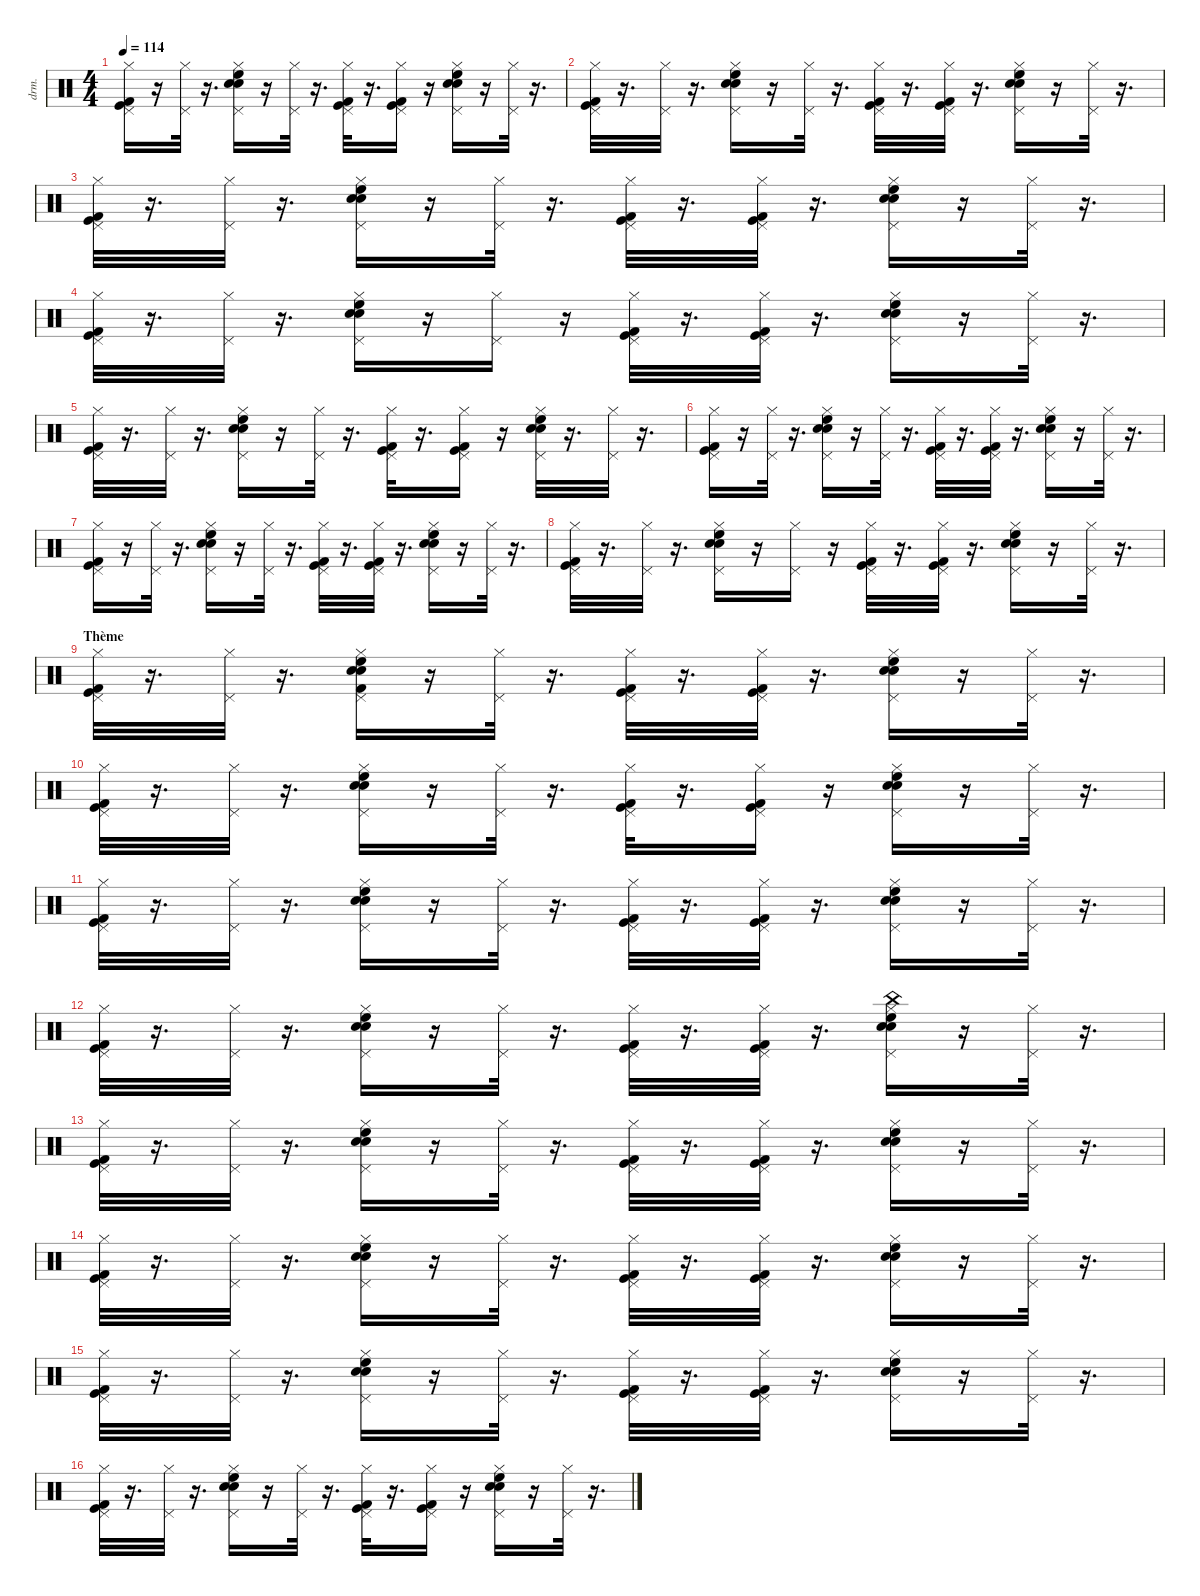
\defaultSystemsLayout 4
\hideDynamics
\bracketExtendMode nobrackets
\otherSystemsTrackNameOrientation horizontal
\track ("Drums" "drm.") {instrument percussion}
\staff {score}
\articulation defaults
\ts (4 4)
\tempo 114
\clef neutral
\ks c
("Kick (hit)" "Kick (hit) 2" "Pedal Hi-Hat (hit)" "Hi-Hat (closed)").16{dy fff} r.16 ("Pedal Hi-Hat (hit)" "Hi-Hat (closed)").32{dy ff} r.16{d} ("Snare (hit) 2" "Pedal Hi-Hat (hit)" "Hi-Hat (closed)" "High Floor Tom (hit)" "Snare (hit) 2").16{dy fff} r.16 ("Pedal Hi-Hat (hit)" "Hi-Hat (closed)").32{dy ff} r.16{d} ("Kick (hit)" "Kick (hit) 2" "Pedal Hi-Hat (hit)" "Hi-Hat (closed)").32{dy fff} r.16{d} ("Kick (hit) 2" "Kick (hit)" "Pedal Hi-Hat (hit)" "Hi-Hat (closed)").16 r.16 ("Snare (hit) 2" "Snare (hit) 2" "High Floor Tom (hit)" "Pedal Hi-Hat (hit)" "Hi-Hat (closed)").16 r.16 ("Pedal Hi-Hat (hit)" "Hi-Hat (closed)").32{dy ff} r.16{d} |
("Kick (hit)" "Pedal Hi-Hat (hit)" "Hi-Hat (closed)" "Kick (hit) 2").32{dy fff} r.16{d} ("Pedal Hi-Hat (hit)" "Hi-Hat (closed)").32{dy f} r.16{d} ("High Floor Tom (hit)" "Snare (hit) 2" "Pedal Hi-Hat (hit)" "Snare (hit) 2" "Hi-Hat (closed)").16{dy fff} r.16 ("Pedal Hi-Hat (hit)" "Hi-Hat (closed)").32{dy f} r.16{d} ("Kick (hit) 2" "Kick (hit)" "Pedal Hi-Hat (hit)" "Hi-Hat (closed)").32{dy fff} r.16{d} ("Kick (hit) 2" "Kick (hit)" "Pedal Hi-Hat (hit)" "Hi-Hat (closed)").32 r.16{d} ("Snare (hit) 2" "High Floor Tom (hit)" "Snare (hit) 2" "Pedal Hi-Hat (hit)" "Hi-Hat (closed)").16 r.16 ("Pedal Hi-Hat (hit)" "Hi-Hat (closed)").32{dy ff} r.16{d} |
("Kick (hit) 2" "Kick (hit)" "Pedal Hi-Hat (hit)" "Hi-Hat (closed)").32{dy fff} r.16{d} ("Pedal Hi-Hat (hit)" "Hi-Hat (closed)").32{dy ff} r.16{d} ("Snare (hit) 2" "Snare (hit) 2" "Pedal Hi-Hat (hit)" "Hi-Hat (closed)" "High Floor Tom (hit)").16{dy fff} r.16 ("Pedal Hi-Hat (hit)" "Hi-Hat (closed)").32{dy f} r.16{d} ("Kick (hit) 2" "Pedal Hi-Hat (hit)" "Hi-Hat (closed)" "Kick (hit)").32{dy fff} r.16{d} ("Pedal Hi-Hat (hit)" "Hi-Hat (closed)" "Kick (hit) 2" "Kick (hit)").32{dy ff} r.16{d} ("Snare (hit) 2" "High Floor Tom (hit)" "Snare (hit) 2" "Pedal Hi-Hat (hit)" "Hi-Hat (closed)").16{dy fff} r.16 ("Pedal Hi-Hat (hit)" "Hi-Hat (closed)").32{dy f} r.16{d} |
("Kick (hit) 2" "Kick (hit)" "Pedal Hi-Hat (hit)" "Hi-Hat (closed)").32{dy fff} r.16{d} ("Pedal Hi-Hat (hit)" "Hi-Hat (closed)").32{dy f} r.16{d} ("Snare (hit) 2" "Snare (hit) 2" "Pedal Hi-Hat (hit)" "High Floor Tom (hit)" "Hi-Hat (closed)").16{dy fff} r.16 ("Pedal Hi-Hat (hit)" "Hi-Hat (closed)").16{dy f} r.16 ("Kick (hit) 2" "Pedal Hi-Hat (hit)" "Hi-Hat (closed)" "Kick (hit)").32{dy fff} r.16{d} ("Kick (hit) 2" "Pedal Hi-Hat (hit)" "Hi-Hat (closed)" "Kick (hit)").32 r.16{d} ("Snare (hit) 2" "Snare (hit) 2" "Pedal Hi-Hat (hit)" "Hi-Hat (closed)" "High Floor Tom (hit)").16 r.16 ("Pedal Hi-Hat (hit)" "Hi-Hat (closed)").32{dy f} r.16{d} |
("Kick (hit)" "Pedal Hi-Hat (hit)" "Kick (hit) 2" "Hi-Hat (closed)").32{dy fff} r.16{d} ("Pedal Hi-Hat (hit)" "Hi-Hat (closed)").32{dy f} r.16{d} ("Snare (hit) 2" "High Floor Tom (hit)" "Pedal Hi-Hat (hit)" "Hi-Hat (closed)" "Snare (hit) 2").16{dy fff} r.16 ("Pedal Hi-Hat (hit)" "Hi-Hat (closed)").32{dy f} r.16{d} ("Kick (hit) 2" "Kick (hit)" "Pedal Hi-Hat (hit)" "Hi-Hat (closed)").32{dy fff} r.16{d} ("Kick (hit)" "Kick (hit) 2" "Pedal Hi-Hat (hit)" "Hi-Hat (closed)").16 r.16 ("Snare (hit) 2" "Snare (hit) 2" "High Floor Tom (hit)" "Pedal Hi-Hat (hit)" "Hi-Hat (closed)").32 r.16{d} ("Pedal Hi-Hat (hit)" "Hi-Hat (closed)").32{dy f} r.16{d} |
("Kick (hit)" "Pedal Hi-Hat (hit)" "Hi-Hat (closed)" "Kick (hit) 2").16{dy fff} r.16 ("Pedal Hi-Hat (hit)" "Hi-Hat (closed)").32{dy f} r.16{d} ("High Floor Tom (hit)" "Snare (hit) 2" "Pedal Hi-Hat (hit)" "Hi-Hat (closed)" "Snare (hit) 2").16{dy fff} r.16 ("Pedal Hi-Hat (hit)" "Hi-Hat (closed)").32{dy f} r.16{d} ("Pedal Hi-Hat (hit)" "Kick (hit) 2" "Kick (hit)" "Hi-Hat (closed)").32{dy ff} r.16{d} ("Pedal Hi-Hat (hit)" "Kick (hit)" "Hi-Hat (closed)" "Kick (hit) 2").32{dy f} r.16{d} ("Snare (hit) 2" "High Floor Tom (hit)" "Pedal Hi-Hat (hit)" "Hi-Hat (closed)" "Snare (hit) 2").16{dy fff} r.16 ("Pedal Hi-Hat (hit)" "Hi-Hat (closed)").32{dy f} r.16{d} |
("Kick (hit)" "Kick (hit) 2" "Pedal Hi-Hat (hit)" "Hi-Hat (closed)").16{dy fff} r.16 ("Pedal Hi-Hat (hit)" "Hi-Hat (closed)").32{dy f} r.16{d} ("Snare (hit) 2" "Pedal Hi-Hat (hit)" "Hi-Hat (closed)" "High Floor Tom (hit)" "Snare (hit) 2").16{dy fff} r.16 ("Pedal Hi-Hat (hit)" "Hi-Hat (closed)").32{dy f} r.16{d} ("Pedal Hi-Hat (hit)" "Hi-Hat (closed)" "Kick (hit) 2" "Kick (hit)").32{dy ff} r.16{d} ("Pedal Hi-Hat (hit)" "Kick (hit) 2" "Kick (hit)" "Hi-Hat (closed)").32 r.16{d} ("Snare (hit) 2" "High Floor Tom (hit)" "Snare (hit) 2" "Pedal Hi-Hat (hit)" "Hi-Hat (closed)").16{dy fff} r.16 ("Pedal Hi-Hat (hit)" "Hi-Hat (closed)").32{dy f} r.16{d} |
("Kick (hit)" "Kick (hit) 2" "Pedal Hi-Hat (hit)" "Hi-Hat (closed)").32{dy fff} r.16{d} ("Pedal Hi-Hat (hit)" "Hi-Hat (closed)").32{dy f} r.16{d} ("Pedal Hi-Hat (hit)" "Snare (hit) 2" "Hi-Hat (closed)" "Snare (hit) 2" "High Floor Tom (hit)").16{dy ff} r.16 ("Pedal Hi-Hat (hit)" "Hi-Hat (closed)").16{dy f} r.16 ("Pedal Hi-Hat (hit)" "Hi-Hat (closed)" "Kick (hit) 2" "Kick (hit)").32{dy ff} r.16{d} ("Pedal Hi-Hat (hit)" "Hi-Hat (closed)" "Kick (hit)" "Kick (hit) 2").32 r.16{d} ("Snare (hit) 2" "Pedal Hi-Hat (hit)" "Hi-Hat (closed)" "Snare (hit) 2" "High Floor Tom (hit)").16{dy fff} r.16 ("Pedal Hi-Hat (hit)" "Hi-Hat (closed)").32{dy f} r.16{d} |
\section ("" "Thème")
("Pedal Hi-Hat (hit)" "Kick (hit)" "Hi-Hat (closed)" "Kick (hit) 2").32 r.16{d} ("Pedal Hi-Hat (hit)" "Hi-Hat (closed)").32{dy ff} r.16{d} ("Kick (hit) 2" "Pedal Hi-Hat (hit)" "Snare (hit) 2" "Hi-Hat (closed)" "High Floor Tom (hit)" "Snare (hit) 2").16 r.16 ("Pedal Hi-Hat (hit)" "Hi-Hat (closed)").32{dy f} r.16{d} ("Pedal Hi-Hat (hit)" "Kick (hit) 2" "Kick (hit)" "Hi-Hat (closed)").32{dy ff} r.16{d} ("Pedal Hi-Hat (hit)" "Hi-Hat (closed)" "Kick (hit)" "Kick (hit) 2").32{dy f} r.16{d} ("Pedal Hi-Hat (hit)" "Hi-Hat (closed)" "High Floor Tom (hit)" "Snare (hit) 2" "Snare (hit) 2").16{dy ff} r.16 ("Pedal Hi-Hat (hit)" "Hi-Hat (closed)").32{dy f} r.16{d} |
("Kick (hit)" "Kick (hit) 2" "Pedal Hi-Hat (hit)" "Hi-Hat (closed)").32{dy fff} r.16{d} ("Pedal Hi-Hat (hit)" "Hi-Hat (closed)").32{dy ff} r.16{d} ("Snare (hit) 2" "Pedal Hi-Hat (hit)" "Snare (hit) 2" "Hi-Hat (closed)" "High Floor Tom (hit)").16{dy fff} r.16 ("Pedal Hi-Hat (hit)" "Hi-Hat (closed)").32{dy f} r.16{d} ("Kick (hit)" "Kick (hit) 2" "Pedal Hi-Hat (hit)" "Hi-Hat (closed)").32{dy fff} r.16{d} ("Kick (hit)" "Pedal Hi-Hat (hit)" "Hi-Hat (closed)" "Kick (hit) 2").16 r.16 ("Snare (hit) 2" "High Floor Tom (hit)" "Pedal Hi-Hat (hit)" "Hi-Hat (closed)" "Snare (hit) 2").16 r.16 ("Pedal Hi-Hat (hit)" "Hi-Hat (closed)").32{dy ff} r.16{d} |
("Kick (hit)" "Pedal Hi-Hat (hit)" "Hi-Hat (closed)" "Kick (hit) 2").32{dy fff} r.16{d} ("Pedal Hi-Hat (hit)" "Hi-Hat (closed)").32{dy ff} r.16{d} ("Snare (hit) 2" "High Floor Tom (hit)" "Pedal Hi-Hat (hit)" "Snare (hit) 2" "Hi-Hat (closed)").16{dy fff} r.16 ("Pedal Hi-Hat (hit)" "Hi-Hat (closed)").32{dy ff} r.16{d} ("Kick (hit) 2" "Kick (hit)" "Pedal Hi-Hat (hit)" "Hi-Hat (closed)").32{dy fff} r.16{d} ("Kick (hit) 2" "Kick (hit)" "Pedal Hi-Hat (hit)" "Hi-Hat (closed)").32 r.16{d} ("Snare (hit) 2" "Snare (hit) 2" "Pedal Hi-Hat (hit)" "Hi-Hat (closed)" "High Floor Tom (hit)").16 r.16 ("Pedal Hi-Hat (hit)" "Hi-Hat (closed)").32{dy f} r.16{d} |
("Kick (hit)" "Kick (hit) 2" "Pedal Hi-Hat (hit)" "Hi-Hat (closed)").32{dy fff} r.16{d} ("Pedal Hi-Hat (hit)" "Hi-Hat (closed)").32{dy ff} r.16{d} ("Snare (hit) 2" "Pedal Hi-Hat (hit)" "Hi-Hat (closed)" "Snare (hit) 2" "High Floor Tom (hit)").16{dy fff} r.16 ("Pedal Hi-Hat (hit)" "Hi-Hat (closed)").32{dy ff} r.16{d} ("Kick (hit)" "Kick (hit) 2" "Pedal Hi-Hat (hit)" "Hi-Hat (closed)").32{dy fff} r.16{d} ("Kick (hit)" "Pedal Hi-Hat (hit)" "Hi-Hat (closed)" "Kick (hit) 2").32 r.16{d} ("Snare (hit) 2" "Snare (hit) 2" "Pedal Hi-Hat (hit)" "Hi-Hat (closed)" "China (hit)" "High Floor Tom (hit)").16 r.16 ("Pedal Hi-Hat (hit)" "Hi-Hat (closed)").32{dy ff} r.16{d} |
("Kick (hit)" "Pedal Hi-Hat (hit)" "Hi-Hat (closed)" "Kick (hit) 2").32{dy fff} r.16{d} ("Pedal Hi-Hat (hit)" "Hi-Hat (closed)").32{dy ff} r.16{d} ("Pedal Hi-Hat (hit)" "Hi-Hat (closed)" "Snare (hit) 2" "Snare (hit) 2" "High Floor Tom (hit)").16 r.16 ("Pedal Hi-Hat (hit)" "Hi-Hat (closed)").32 r.16{d} ("Pedal Hi-Hat (hit)" "Hi-Hat (closed)" "Kick (hit)" "Kick (hit) 2").32 r.16{d} ("Pedal Hi-Hat (hit)" "Hi-Hat (closed)" "Kick (hit)" "Kick (hit) 2").32 r.16{d} ("Snare (hit) 2" "High Floor Tom (hit)" "Pedal Hi-Hat (hit)" "Hi-Hat (closed)" "Snare (hit) 2").16{dy fff} r.16 ("Pedal Hi-Hat (hit)" "Hi-Hat (closed)").32{dy ff} r.16{d} |
("Kick (hit)" "Hi-Hat (closed)" "Pedal Hi-Hat (hit)" "Kick (hit) 2").32{dy fff} r.16{d} ("Hi-Hat (closed)" "Pedal Hi-Hat (hit)").32{dy ff} r.16{d} ("Snare (hit) 2" "Pedal Hi-Hat (hit)" "Hi-Hat (closed)" "Snare (hit) 2" "High Floor Tom (hit)").16{dy fff} r.16 ("Pedal Hi-Hat (hit)" "Hi-Hat (closed)").32{dy f} r.16{d} ("Pedal Hi-Hat (hit)" "Kick (hit)" "Hi-Hat (closed)" "Kick (hit) 2").32{dy ff} r.16{d} ("Kick (hit)" "Pedal Hi-Hat (hit)" "Hi-Hat (closed)" "Kick (hit) 2").32{dy fff} r.16{d} ("Snare (hit) 2" "High Floor Tom (hit)" "Pedal Hi-Hat (hit)" "Hi-Hat (closed)" "Snare (hit) 2").16 r.16 ("Pedal Hi-Hat (hit)" "Hi-Hat (closed)").32{dy f} r.16{d} |
("Kick (hit)" "Kick (hit) 2" "Pedal Hi-Hat (hit)" "Hi-Hat (closed)").32{dy fff} r.16{d} ("Pedal Hi-Hat (hit)" "Hi-Hat (closed)").32{dy ff} r.16{d} ("Snare (hit) 2" "Pedal Hi-Hat (hit)" "Hi-Hat (closed)" "High Floor Tom (hit)" "Snare (hit) 2").16{dy fff} r.16 ("Pedal Hi-Hat (hit)" "Hi-Hat (closed)").32{dy ff} r.16{d} ("Kick (hit)" "Pedal Hi-Hat (hit)" "Hi-Hat (closed)" "Kick (hit) 2").32{dy fff} r.16{d} ("Pedal Hi-Hat (hit)" "Hi-Hat (closed)" "Kick (hit) 2" "Kick (hit)").32{dy ff} r.16{d} ("Snare (hit) 2" "Pedal Hi-Hat (hit)" "Hi-Hat (closed)" "Snare (hit) 2" "High Floor Tom (hit)").16{dy fff} r.16 ("Pedal Hi-Hat (hit)" "Hi-Hat (closed)").32{dy f} r.16{d} |
("Kick (hit)" "Pedal Hi-Hat (hit)" "Kick (hit) 2" "Hi-Hat (closed)").32{dy fff} r.16{d} ("Pedal Hi-Hat (hit)" "Hi-Hat (closed)").32{dy f} r.16{d} ("Pedal Hi-Hat (hit)" "Hi-Hat (closed)" "Snare (hit) 2" "Snare (hit) 2" "High Floor Tom (hit)").16{dy ff} r.16 ("Pedal Hi-Hat (hit)" "Hi-Hat (closed)").32 r.16{d} ("Pedal Hi-Hat (hit)" "Hi-Hat (closed)" "Kick (hit)" "Kick (hit) 2").32 r.16{d} ("Pedal Hi-Hat (hit)" "Hi-Hat (closed)" "Kick (hit)" "Kick (hit) 2").16 r.16 ("Pedal Hi-Hat (hit)" "Snare (hit) 2" "Hi-Hat (closed)" "High Floor Tom (hit)" "Snare (hit) 2").16 r.16 ("Pedal Hi-Hat (hit)" "Hi-Hat (closed)").32 r.16{d}
